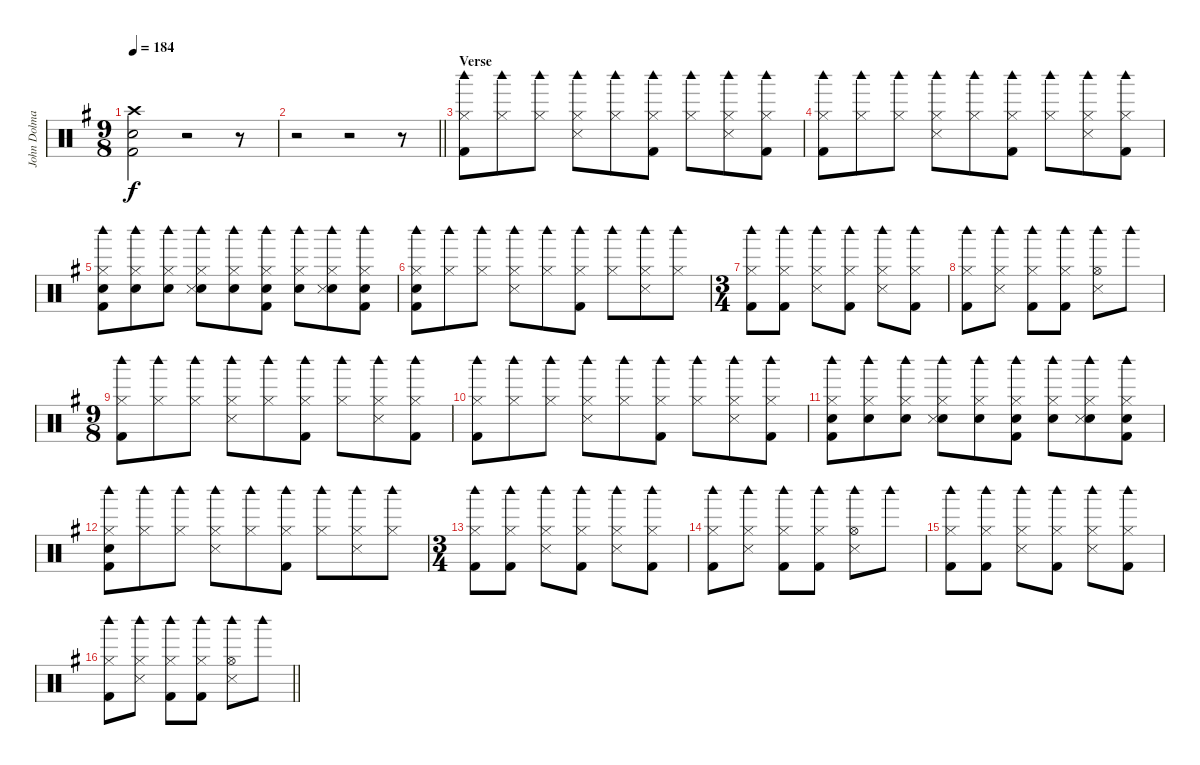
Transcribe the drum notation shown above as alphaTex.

\track ("John Dolmayan [Drums]" "John Dolma") {instrument percussion}
\staff {score}
\articulation defaults
\ts (9 8)
\tempo 184
\clef neutral
\ks eminor
("Crash high (hit)" "Electric Snare (hit)" "Kick (hit) 2").2{dy f} r.2 r.8 |
\barLineRight lightlight
r.2 r.2 r.8 |
\section ("" "Verse")
("Woodblock high (hit)" "Hi-Hat (closed)" "Kick (hit) 2").8 ("Woodblock high (hit)" "Hi-Hat (closed)").8 ("Woodblock high (hit)" "Hi-Hat (closed)").8 ("Woodblock high (hit)" "Hi-Hat (closed)" "Snare (side stick) 3").8 ("Woodblock high (hit)" "Hi-Hat (closed)").8 ("Woodblock high (hit)" "Hi-Hat (closed)" "Kick (hit) 2").8 ("Woodblock high (hit)" "Hi-Hat (closed)").8 ("Woodblock high (hit)" "Hi-Hat (closed)" "Snare (side stick) 3").8 ("Woodblock high (hit)" "Hi-Hat (closed)" "Kick (hit) 2").8 |
("Woodblock high (hit)" "Hi-Hat (closed)" "Kick (hit) 2").8 ("Woodblock high (hit)" "Hi-Hat (closed)").8 ("Woodblock high (hit)" "Hi-Hat (closed)").8 ("Woodblock high (hit)" "Hi-Hat (closed)" "Snare (side stick) 3").8 ("Woodblock high (hit)" "Hi-Hat (closed)").8 ("Woodblock high (hit)" "Hi-Hat (closed)" "Kick (hit) 2").8 ("Woodblock high (hit)" "Hi-Hat (closed)").8 ("Woodblock high (hit)" "Hi-Hat (closed)" "Snare (side stick) 3").8 ("Woodblock high (hit)" "Hi-Hat (closed)" "Kick (hit) 2").8 |
("Woodblock high (hit)" "Hand Clap (hit)" "Hi-Hat (closed)" "Kick (hit) 2").8 ("Woodblock high (hit)" "Hand Clap (hit)" "Hi-Hat (closed)").8 ("Woodblock high (hit)" "Hand Clap (hit)" "Hi-Hat (closed)").8 ("Woodblock high (hit)" "Hand Clap (hit)" "Hi-Hat (closed)" "Snare (side stick) 3").8 ("Woodblock high (hit)" "Hand Clap (hit)" "Hi-Hat (closed)").8 ("Woodblock high (hit)" "Hand Clap (hit)" "Hi-Hat (closed)" "Kick (hit) 2").8 ("Woodblock high (hit)" "Hand Clap (hit)" "Hi-Hat (closed)").8 ("Woodblock high (hit)" "Hand Clap (hit)" "Hi-Hat (closed)" "Snare (side stick) 3").8 ("Woodblock high (hit)" "Hand Clap (hit)" "Hi-Hat (closed)" "Kick (hit) 2").8 |
("Woodblock high (hit)" "Hand Clap (hit)" "Hi-Hat (closed)" "Kick (hit) 2").8 ("Woodblock high (hit)" "Hi-Hat (closed)").8 ("Woodblock high (hit)" "Hi-Hat (closed)").8 ("Woodblock high (hit)" "Hi-Hat (closed)" "Snare (side stick) 3").8 ("Woodblock high (hit)" "Hi-Hat (closed)").8 ("Woodblock high (hit)" "Hi-Hat (closed)" "Kick (hit) 2").8 ("Woodblock high (hit)" "Hi-Hat (closed)").8 ("Woodblock high (hit)" "Hi-Hat (closed)" "Snare (side stick) 3").8 ("Woodblock high (hit)" "Hi-Hat (closed)").8 |
\ts (3 4)
("Woodblock high (hit)" "Hi-Hat (closed)" "Kick (hit) 2").8 ("Woodblock high (hit)" "Hi-Hat (closed)" "Kick (hit) 2").8 ("Woodblock high (hit)" "Hi-Hat (closed)" "Snare (side stick) 3").8 ("Woodblock high (hit)" "Hi-Hat (closed)" "Kick (hit) 2").8 ("Woodblock high (hit)" "Hi-Hat (closed)" "Snare (side stick) 3").8 ("Woodblock high (hit)" "Hi-Hat (closed)" "Kick (hit) 2").8 |
("Woodblock high (hit)" "Hi-Hat (closed)" "Kick (hit) 2").8 ("Woodblock high (hit)" "Hi-Hat (closed)" "Snare (side stick) 3").8 ("Woodblock high (hit)" "Hi-Hat (closed)" "Kick (hit) 2").8 ("Woodblock high (hit)" "Hi-Hat (closed)" "Kick (hit) 2").8 ("Woodblock high (hit)" "Hi-Hat (open)" "Snare (side stick) 3").8 "Woodblock high (hit)".8 |
\ts (9 8)
("Woodblock high (hit)" "Hi-Hat (closed)" "Kick (hit) 2").8 ("Woodblock high (hit)" "Hi-Hat (closed)").8 ("Woodblock high (hit)" "Hi-Hat (closed)").8 ("Woodblock high (hit)" "Hi-Hat (closed)" "Snare (side stick) 3").8 ("Woodblock high (hit)" "Hi-Hat (closed)").8 ("Woodblock high (hit)" "Hi-Hat (closed)" "Kick (hit) 2").8 ("Woodblock high (hit)" "Hi-Hat (closed)").8 ("Woodblock high (hit)" "Hi-Hat (closed)" "Snare (side stick) 3").8 ("Woodblock high (hit)" "Hi-Hat (closed)" "Kick (hit) 2").8 |
("Woodblock high (hit)" "Hi-Hat (closed)" "Kick (hit) 2").8 ("Woodblock high (hit)" "Hi-Hat (closed)").8 ("Woodblock high (hit)" "Hi-Hat (closed)").8 ("Woodblock high (hit)" "Hi-Hat (closed)" "Snare (side stick) 3").8 ("Woodblock high (hit)" "Hi-Hat (closed)").8 ("Woodblock high (hit)" "Hi-Hat (closed)" "Kick (hit) 2").8 ("Woodblock high (hit)" "Hi-Hat (closed)").8 ("Woodblock high (hit)" "Hi-Hat (closed)" "Snare (side stick) 3").8 ("Woodblock high (hit)" "Hi-Hat (closed)" "Kick (hit) 2").8 |
("Woodblock high (hit)" "Hand Clap (hit)" "Hi-Hat (closed)" "Kick (hit) 2").8 ("Woodblock high (hit)" "Hand Clap (hit)" "Hi-Hat (closed)").8 ("Woodblock high (hit)" "Hand Clap (hit)" "Hi-Hat (closed)").8 ("Woodblock high (hit)" "Hand Clap (hit)" "Hi-Hat (closed)" "Snare (side stick) 3").8 ("Woodblock high (hit)" "Hand Clap (hit)" "Hi-Hat (closed)").8 ("Woodblock high (hit)" "Hand Clap (hit)" "Hi-Hat (closed)" "Kick (hit) 2").8 ("Woodblock high (hit)" "Hand Clap (hit)" "Hi-Hat (closed)").8 ("Woodblock high (hit)" "Hand Clap (hit)" "Hi-Hat (closed)" "Snare (side stick) 3").8 ("Woodblock high (hit)" "Hand Clap (hit)" "Hi-Hat (closed)" "Kick (hit) 2").8 |
("Woodblock high (hit)" "Hand Clap (hit)" "Hi-Hat (closed)" "Kick (hit) 2").8 ("Woodblock high (hit)" "Hi-Hat (closed)").8 ("Woodblock high (hit)" "Hi-Hat (closed)").8 ("Woodblock high (hit)" "Hi-Hat (closed)" "Snare (side stick) 3").8 ("Woodblock high (hit)" "Hi-Hat (closed)").8 ("Woodblock high (hit)" "Hi-Hat (closed)" "Kick (hit) 2").8 ("Woodblock high (hit)" "Hi-Hat (closed)").8 ("Woodblock high (hit)" "Hi-Hat (closed)" "Snare (side stick) 3").8 ("Woodblock high (hit)" "Hi-Hat (closed)").8 |
\ts (3 4)
("Woodblock high (hit)" "Hi-Hat (closed)" "Kick (hit) 2").8 ("Woodblock high (hit)" "Hi-Hat (closed)" "Kick (hit) 2").8 ("Woodblock high (hit)" "Hi-Hat (closed)" "Snare (side stick) 3").8 ("Woodblock high (hit)" "Hi-Hat (closed)" "Kick (hit) 2").8 ("Woodblock high (hit)" "Hi-Hat (closed)" "Snare (side stick) 3").8 ("Woodblock high (hit)" "Hi-Hat (closed)" "Kick (hit) 2").8 |
("Woodblock high (hit)" "Hi-Hat (closed)" "Kick (hit) 2").8 ("Woodblock high (hit)" "Hi-Hat (closed)" "Snare (side stick) 3").8 ("Woodblock high (hit)" "Hi-Hat (closed)" "Kick (hit) 2").8 ("Woodblock high (hit)" "Hi-Hat (closed)" "Kick (hit) 2").8 ("Woodblock high (hit)" "Hi-Hat (open)" "Snare (side stick) 3").8 "Woodblock high (hit)".8 |
("Woodblock high (hit)" "Hi-Hat (closed)" "Kick (hit) 2").8 ("Woodblock high (hit)" "Hi-Hat (closed)" "Kick (hit) 2").8 ("Woodblock high (hit)" "Hi-Hat (closed)" "Snare (side stick) 3").8 ("Woodblock high (hit)" "Hi-Hat (closed)" "Kick (hit) 2").8 ("Woodblock high (hit)" "Hi-Hat (closed)" "Snare (side stick) 3").8 ("Woodblock high (hit)" "Hi-Hat (closed)" "Kick (hit) 2").8 |
\barLineRight lightlight
("Woodblock high (hit)" "Hi-Hat (closed)" "Kick (hit) 2").8 ("Woodblock high (hit)" "Hi-Hat (closed)" "Snare (side stick) 3").8 ("Woodblock high (hit)" "Hi-Hat (closed)" "Kick (hit) 2").8 ("Woodblock high (hit)" "Hi-Hat (closed)" "Kick (hit) 2").8 ("Woodblock high (hit)" "Hi-Hat (open)" "Snare (side stick) 3").8 "Woodblock high (hit)".8
